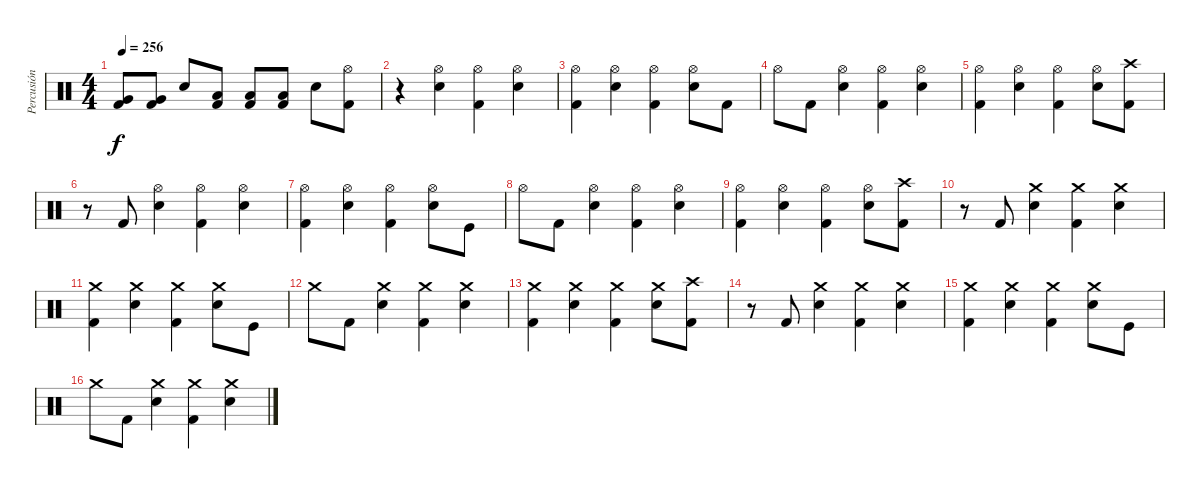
\track ("Percusión" "Percusión") {instrument percussion}
\staff {score}
\articulation defaults
\ts (4 4)
\tempo 256
\clef neutral
\ks c
("Kick (hit) 2" "Very Low Tom (hit)").8{dy f} ("Kick (hit) 2" "Very Low Tom (hit)").8 "Electric Snare (hit)".8 ("Kick (hit) 2" "Low Floor Tom (hit)").8 ("Kick (hit) 2" "Low Floor Tom (hit)").8 ("Kick (hit) 2" "Low Floor Tom (hit)").8 "Electric Snare (hit)".8 ("Kick (hit) 2" "Hi-Hat (open)").8 |
r.4 ("Electric Snare (hit)" "Hi-Hat (open)").4 ("Kick (hit) 2" "Hi-Hat (open)").4 ("Electric Snare (hit)" "Hi-Hat (open)").4 |
("Kick (hit) 2" "Hi-Hat (open)").4 ("Electric Snare (hit)" "Hi-Hat (open)").4 ("Kick (hit) 2" "Hi-Hat (open)").4 ("Electric Snare (hit)" "Hi-Hat (open)").8 "Kick (hit) 2".8 |
"Hi-Hat (open)".8 "Kick (hit) 2".8 ("Electric Snare (hit)" "Hi-Hat (open)").4 ("Kick (hit) 2" "Hi-Hat (open)").4 ("Electric Snare (hit)" "Hi-Hat (open)").4 |
("Kick (hit) 2" "Hi-Hat (open)").4 ("Electric Snare (hit)" "Hi-Hat (open)").4 ("Kick (hit) 2" "Hi-Hat (open)").4 ("Electric Snare (hit)" "Hi-Hat (open)").8 ("Kick (hit) 2" "Crash high (hit)").8 |
r.8 "Kick (hit) 2".8 ("Electric Snare (hit)" "Hi-Hat (open)").4 ("Kick (hit) 2" "Hi-Hat (open)").4 ("Electric Snare (hit)" "Hi-Hat (open)").4 |
("Kick (hit) 2" "Hi-Hat (open)").4 ("Electric Snare (hit)" "Hi-Hat (open)").4 ("Kick (hit) 2" "Hi-Hat (open)").4 ("Electric Snare (hit)" "Hi-Hat (open)").8 "Kick (hit)".8 |
"Hi-Hat (open)".8 "Kick (hit) 2".8 ("Electric Snare (hit)" "Hi-Hat (open)").4 ("Kick (hit) 2" "Hi-Hat (open)").4 ("Electric Snare (hit)" "Hi-Hat (open)").4 |
("Kick (hit) 2" "Hi-Hat (open)").4 ("Electric Snare (hit)" "Hi-Hat (open)").4 ("Kick (hit) 2" "Hi-Hat (open)").4 ("Electric Snare (hit)" "Hi-Hat (open)").8 ("Kick (hit) 2" "Crash high (hit)").8 |
r.8 "Kick (hit) 2".8 ("Electric Snare (hit)" "Crash medium (hit)").4 ("Kick (hit) 2" "Crash medium (hit)").4 ("Electric Snare (hit)" "Crash medium (hit)").4 |
("Kick (hit) 2" "Crash medium (hit)").4 ("Electric Snare (hit)" "Crash medium (hit)").4 ("Kick (hit) 2" "Crash medium (hit)").4 ("Electric Snare (hit)" "Crash medium (hit)").8 "Kick (hit)".8 |
"Crash medium (hit)".8 "Kick (hit) 2".8 ("Electric Snare (hit)" "Crash medium (hit)").4 ("Kick (hit) 2" "Crash medium (hit)").4 ("Electric Snare (hit)" "Crash medium (hit)").4 |
("Kick (hit) 2" "Crash medium (hit)").4 ("Electric Snare (hit)" "Crash medium (hit)").4 ("Kick (hit) 2" "Crash medium (hit)").4 ("Electric Snare (hit)" "Crash medium (hit)").8 ("Kick (hit) 2" "Crash high (hit)").8 |
r.8 "Kick (hit) 2".8 ("Electric Snare (hit)" "Crash medium (hit)").4 ("Kick (hit) 2" "Crash medium (hit)").4 ("Electric Snare (hit)" "Crash medium (hit)").4 |
("Kick (hit) 2" "Crash medium (hit)").4 ("Electric Snare (hit)" "Crash medium (hit)").4 ("Kick (hit) 2" "Crash medium (hit)").4 ("Electric Snare (hit)" "Crash medium (hit)").8 "Kick (hit)".8 |
"Crash medium (hit)".8 "Kick (hit) 2".8 ("Electric Snare (hit)" "Crash medium (hit)").4 ("Kick (hit) 2" "Crash medium (hit)").4 ("Electric Snare (hit)" "Crash medium (hit)").4
